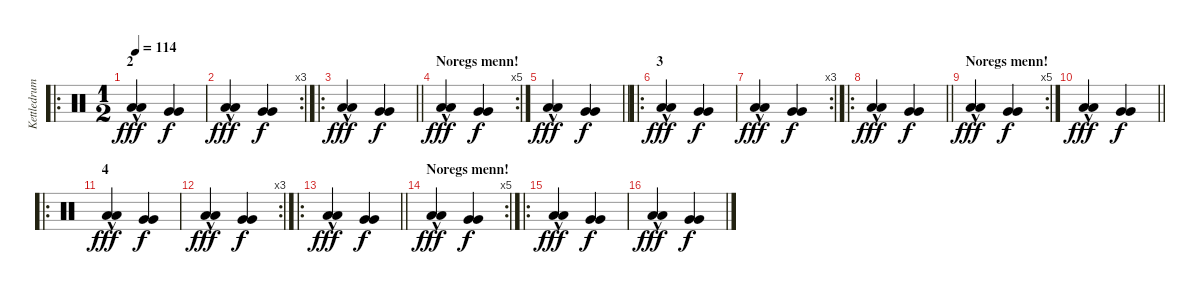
\track ("Kettledrum" "Kettledrum") {instrument percussion}
\staff {score}
\articulation defaults
\ro
\ts (1 2)
\section ("" "2")
\tempo 114
\clef neutral
\ks c
("Low Floor Tom (hit)"{hac} "Low Floor Tom (hit)"{hac}).4{dy fff} ("Very Low Tom (hit)" "Very Low Tom (hit)").4{dy f} |
\rc 3
("Low Floor Tom (hit)"{hac} "Low Floor Tom (hit)"{hac}).4{dy fff} ("Very Low Tom (hit)" "Very Low Tom (hit)").4{dy f} |
\ro
\barLineRight lightlight
("Low Floor Tom (hit)"{hac} "Low Floor Tom (hit)"{hac}).4{dy fff} ("Very Low Tom (hit)" "Very Low Tom (hit)").4{dy f} |
\rc 5
\section ("" "Noregs menn!")
("Low Floor Tom (hit)"{hac} "Low Floor Tom (hit)"{hac}).4{dy fff} ("Very Low Tom (hit)" "Very Low Tom (hit)").4{dy f} |
\barLineRight lightlight
("Low Floor Tom (hit)"{hac} "Low Floor Tom (hit)"{hac}).4{dy fff} ("Very Low Tom (hit)" "Very Low Tom (hit)").4{dy f} |
\ro
\section ("" "3")
("Low Floor Tom (hit)"{hac} "Low Floor Tom (hit)"{hac}).4{dy fff} ("Very Low Tom (hit)" "Very Low Tom (hit)").4{dy f} |
\rc 3
("Low Floor Tom (hit)"{hac} "Low Floor Tom (hit)"{hac}).4{dy fff} ("Very Low Tom (hit)" "Very Low Tom (hit)").4{dy f} |
\ro
\barLineRight lightlight
("Low Floor Tom (hit)"{hac} "Low Floor Tom (hit)"{hac}).4{dy fff} ("Very Low Tom (hit)" "Very Low Tom (hit)").4{dy f} |
\rc 5
\section ("" "Noregs menn!")
("Low Floor Tom (hit)"{hac} "Low Floor Tom (hit)"{hac}).4{dy fff} ("Very Low Tom (hit)" "Very Low Tom (hit)").4{dy f} |
\barLineRight lightlight
("Low Floor Tom (hit)"{hac} "Low Floor Tom (hit)"{hac}).4{dy fff} ("Very Low Tom (hit)" "Very Low Tom (hit)").4{dy f} |
\ro
\section ("" "4")
("Low Floor Tom (hit)"{hac} "Low Floor Tom (hit)"{hac}).4{dy fff} ("Very Low Tom (hit)" "Very Low Tom (hit)").4{dy f} |
\rc 3
("Low Floor Tom (hit)"{hac} "Low Floor Tom (hit)"{hac}).4{dy fff} ("Very Low Tom (hit)" "Very Low Tom (hit)").4{dy f} |
\ro
\barLineRight lightlight
("Low Floor Tom (hit)"{hac} "Low Floor Tom (hit)"{hac}).4{dy fff} ("Very Low Tom (hit)" "Very Low Tom (hit)").4{dy f} |
\rc 5
\section ("" "Noregs menn!")
("Low Floor Tom (hit)"{hac} "Low Floor Tom (hit)"{hac}).4{dy fff} ("Very Low Tom (hit)" "Very Low Tom (hit)").4{dy f} |
\ro
("Low Floor Tom (hit)"{hac} "Low Floor Tom (hit)"{hac}).4{dy fff} ("Very Low Tom (hit)" "Very Low Tom (hit)").4{dy f} |
("Low Floor Tom (hit)"{hac} "Low Floor Tom (hit)"{hac}).4{dy fff} ("Very Low Tom (hit)" "Very Low Tom (hit)").4{dy f}
